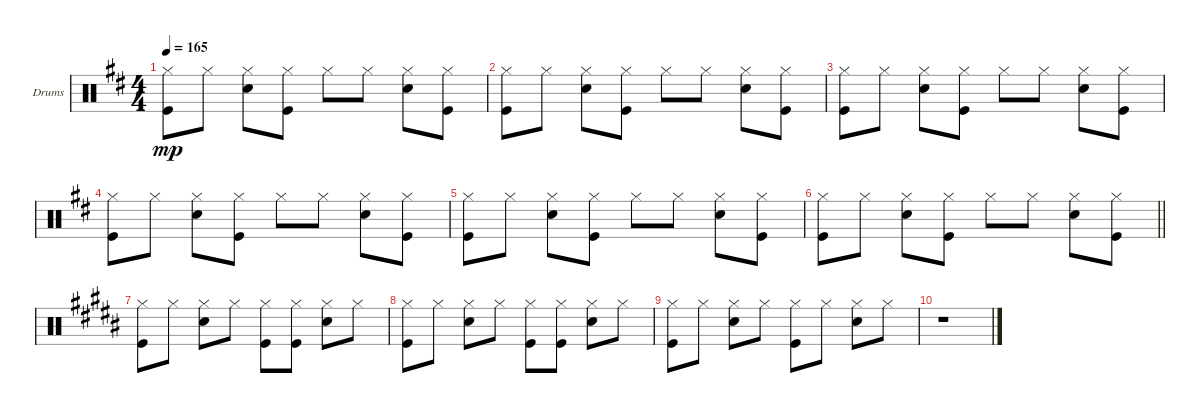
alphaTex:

\defaultSystemsLayout 4
\bracketExtendMode groupsimilarinstruments
\firstSystemTrackNameOrientation horizontal
\otherSystemsTrackNameOrientation horizontal
\track ("Drumkit" "Drums") {instrument percussion}
\staff {score}
\articulation defaults
\ts (4 4)
\tempo 165
\clef neutral
\scale
0.333333
\ks d
("Hi-Hat (closed)" "Kick (hit)").8{dy mp} "Hi-Hat (closed)".8 ("Hi-Hat (closed)" "Snare (hit) 2").8 ("Hi-Hat (closed)" "Kick (hit)").8 "Hi-Hat (closed)".8 "Hi-Hat (closed)".8 ("Hi-Hat (closed)" "Snare (hit) 2").8 ("Hi-Hat (closed)" "Kick (hit)").8 |
\scale
0.333333 ("Hi-Hat (closed)" "Kick (hit)").8 "Hi-Hat (closed)".8 ("Hi-Hat (closed)" "Snare (hit) 2").8 ("Hi-Hat (closed)" "Kick (hit)").8 "Hi-Hat (closed)".8 "Hi-Hat (closed)".8 ("Hi-Hat (closed)" "Snare (hit) 2").8 ("Hi-Hat (closed)" "Kick (hit)").8 |
\scale
0.333333 ("Hi-Hat (closed)" "Kick (hit)").8 "Hi-Hat (closed)".8 ("Hi-Hat (closed)" "Snare (hit) 2").8 ("Hi-Hat (closed)" "Kick (hit)").8 "Hi-Hat (closed)".8 "Hi-Hat (closed)".8 ("Hi-Hat (closed)" "Snare (hit) 2").8 ("Hi-Hat (closed)" "Kick (hit)").8 |
\scale
0.333333 ("Hi-Hat (closed)" "Kick (hit)").8 "Hi-Hat (closed)".8 ("Hi-Hat (closed)" "Snare (hit) 2").8 ("Hi-Hat (closed)" "Kick (hit)").8 "Hi-Hat (closed)".8 "Hi-Hat (closed)".8 ("Hi-Hat (closed)" "Snare (hit) 2").8 ("Hi-Hat (closed)" "Kick (hit)").8 |
\scale
0.242553 ("Hi-Hat (closed)" "Kick (hit)").8 "Hi-Hat (closed)".8 ("Hi-Hat (closed)" "Snare (hit) 2").8 ("Hi-Hat (closed)" "Kick (hit)").8 "Hi-Hat (closed)".8 "Hi-Hat (closed)".8 ("Hi-Hat (closed)" "Snare (hit) 2").8 ("Hi-Hat (closed)" "Kick (hit)").8 |
\scale
0.242553
\barLineRight lightlight
("Hi-Hat (closed)" "Kick (hit)").8 "Hi-Hat (closed)".8 ("Hi-Hat (closed)" "Snare (hit) 2").8 ("Hi-Hat (closed)" "Kick (hit)").8 "Hi-Hat (closed)".8 "Hi-Hat (closed)".8 ("Hi-Hat (closed)" "Snare (hit) 2").8 ("Hi-Hat (closed)" "Kick (hit)").8 |
\scale
0.514894
\ks b
("Hi-Hat (closed)" "Kick (hit)").8 "Hi-Hat (closed)".8 ("Hi-Hat (closed)" "Snare (hit) 2").8 "Hi-Hat (closed)".8 ("Hi-Hat (closed)" "Kick (hit)").8 ("Hi-Hat (closed)" "Kick (hit)").8 ("Hi-Hat (closed)" "Snare (hit) 2").8 "Hi-Hat (closed)".8 |
("Hi-Hat (closed)" "Kick (hit)").8 "Hi-Hat (closed)".8 ("Hi-Hat (closed)" "Snare (hit) 2").8 "Hi-Hat (closed)".8 ("Hi-Hat (closed)" "Kick (hit)").8 ("Hi-Hat (closed)" "Kick (hit)").8 ("Hi-Hat (closed)" "Snare (hit) 2").8 "Hi-Hat (closed)".8 |
("Hi-Hat (closed)" "Kick (hit)").8 "Hi-Hat (closed)".8 ("Hi-Hat (closed)" "Snare (hit) 2").8 "Hi-Hat (closed)".8 ("Hi-Hat (closed)" "Kick (hit)").8 "Hi-Hat (closed)".8 ("Hi-Hat (closed)" "Snare (hit) 2").8 "Hi-Hat (closed)".8 |
r.1
